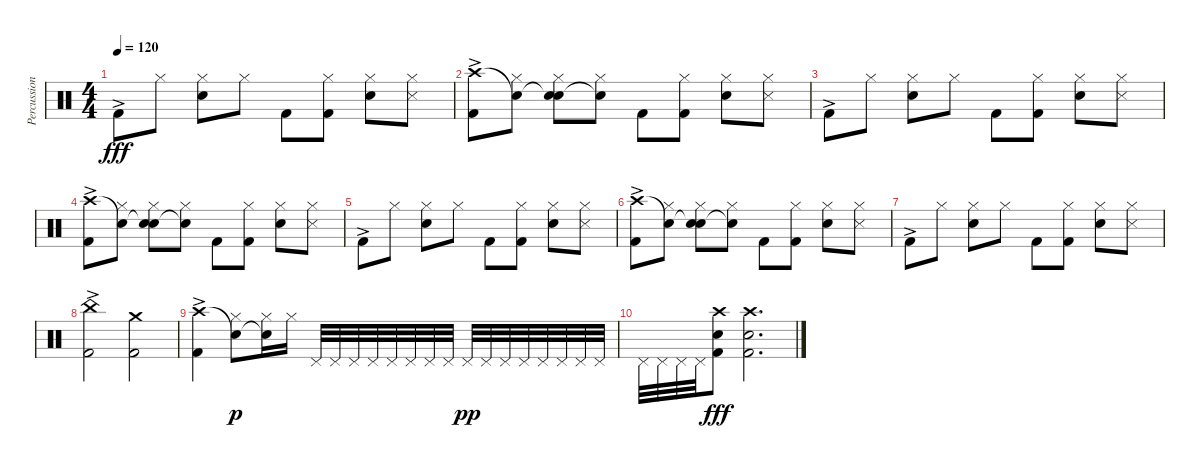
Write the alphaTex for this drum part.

\track ("Percussion" "Percussion") {instrument percussion}
\staff {score}
\articulation defaults
\ts (4 4)
\tempo 120
\clef neutral
\ks c "Kick (hit) 2"{ac}.8{dy fff} "Hi-Hat (closed)".8
("Hi-Hat (closed)" "Snare (hit) 2").8 "Hi-Hat (closed)".8 "Kick (hit) 2".8 ("Hi-Hat (closed)" "Kick (hit) 2").8 ("Hi-Hat (closed)" "Snare (hit) 2").8 ("Hi-Hat (closed)" "Snare (side stick) 3").8 |
("Crash high (hit)" "Kick (hit) 2"{ac}).8 ("Snare (hit)"{t} "Hi-Hat (closed)").8 ("Snare (hit)"{t} "Hi-Hat (closed)" "Snare (hit) 2").8 ("Snare (hit)"{t} "Hi-Hat (closed)").8 "Kick (hit) 2".8 ("Hi-Hat (closed)" "Kick (hit) 2").8 ("Hi-Hat (closed)" "Snare (hit) 2").8 ("Hi-Hat (closed)" "Snare (side stick) 3").8 |
"Kick (hit) 2"{ac}.8 "Hi-Hat (closed)".8 ("Hi-Hat (closed)" "Snare (hit) 2").8 "Hi-Hat (closed)".8 "Kick (hit) 2".8 ("Hi-Hat (closed)" "Kick (hit) 2").8 ("Hi-Hat (closed)" "Snare (hit) 2").8 ("Hi-Hat (closed)" "Snare (side stick) 3").8 |
("Crash high (hit)" "Kick (hit) 2"{ac}).8 ("Snare (hit)"{t} "Hi-Hat (closed)").8 ("Snare (hit)"{t} "Hi-Hat (closed)" "Snare (hit) 2").8 ("Snare (hit)"{t} "Hi-Hat (closed)").8 "Kick (hit) 2".8 ("Hi-Hat (closed)" "Kick (hit) 2").8 ("Hi-Hat (closed)" "Snare (hit) 2").8 ("Hi-Hat (closed)" "Snare (side stick) 3").8 |
"Kick (hit) 2"{ac}.8 "Hi-Hat (closed)".8 ("Hi-Hat (closed)" "Snare (hit) 2").8 "Hi-Hat (closed)".8 "Kick (hit) 2".8 ("Hi-Hat (closed)" "Kick (hit) 2").8 ("Hi-Hat (closed)" "Snare (hit) 2").8 ("Hi-Hat (closed)" "Snare (side stick) 3").8 |
("Crash high (hit)" "Kick (hit) 2"{ac}).8 ("Snare (hit)"{t} "Hi-Hat (closed)").8 ("Snare (hit)"{t} "Hi-Hat (closed)" "Snare (hit) 2").8 ("Snare (hit)"{t} "Hi-Hat (closed)").8 "Kick (hit) 2".8 ("Hi-Hat (closed)" "Kick (hit) 2").8 ("Hi-Hat (closed)" "Snare (hit) 2").8 ("Hi-Hat (closed)" "Snare (side stick) 3").8 |
"Kick (hit) 2"{ac}.8 "Hi-Hat (closed)".8 ("Hi-Hat (closed)" "Snare (hit) 2").8 "Hi-Hat (closed)".8 "Kick (hit) 2".8 ("Hi-Hat (closed)" "Kick (hit) 2").8 ("Hi-Hat (closed)" "Snare (hit) 2").8 ("Hi-Hat (closed)" "Snare (side stick) 3").8 |
("China (hit)" "Kick (hit) 2"{ac}).2 ("Crash medium (hit)" "Kick (hit) 2").2 |
("Crash high (hit)" "Kick (hit) 2"{ac}).4 ("Snare (hit)"{t} "Hi-Hat (closed)").8{dy p} ("Snare (hit)"{t} "Hi-Hat (closed)").16 "Hi-Hat (closed)".16 "Pedal Hi-Hat (hit)".32 "Pedal Hi-Hat (hit)".32 "Pedal Hi-Hat (hit)".32 "Pedal Hi-Hat (hit)".32 "Pedal Hi-Hat (hit)".32 "Pedal Hi-Hat (hit)".32 "Pedal Hi-Hat (hit)".32 "Pedal Hi-Hat (hit)".32 "Pedal Hi-Hat (hit)".32{dy pp} "Pedal Hi-Hat (hit)".32 "Pedal Hi-Hat (hit)".32 "Pedal Hi-Hat (hit)".32 "Pedal Hi-Hat (hit)".32 "Pedal Hi-Hat (hit)".32 "Pedal Hi-Hat (hit)".32 "Pedal Hi-Hat (hit)".32 |
"Pedal Hi-Hat (hit)".32 "Pedal Hi-Hat (hit)".32 "Pedal Hi-Hat (hit)".32 "Pedal Hi-Hat (hit)".32 ("Crash high (hit)" "Snare (hit) 2" "Kick (hit) 2").8{dy fff} ("Crash high (hit)" "Snare (hit) 2" "Kick (hit) 2").2{d}
